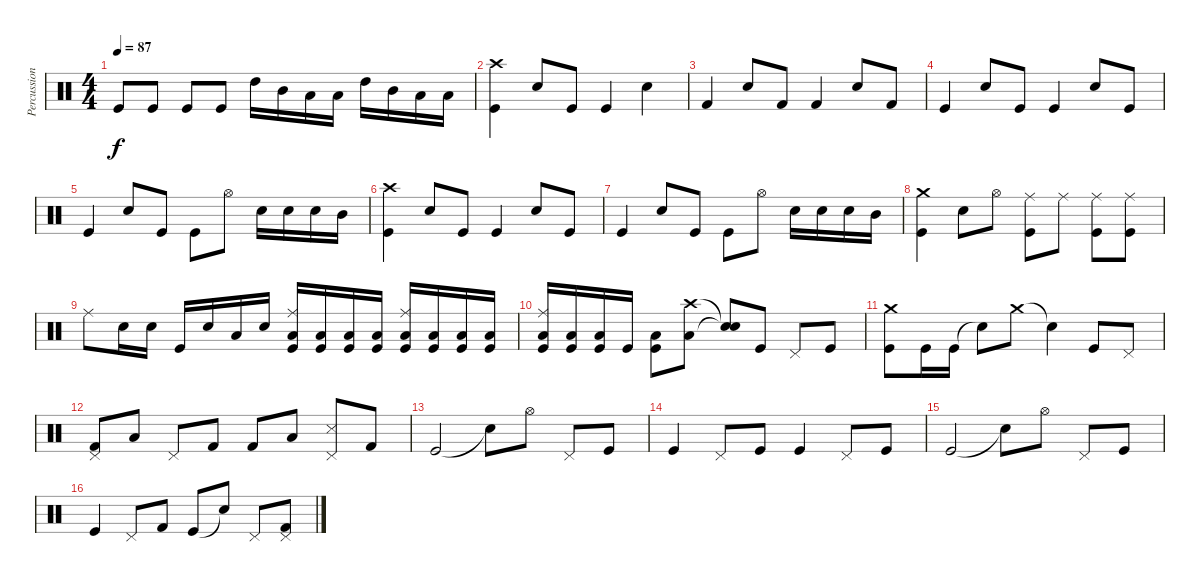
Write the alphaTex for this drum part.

\track ("Percussion" "Percussion") {instrument percussion}
\staff {score}
\articulation defaults
\ts (4 4)
\tempo 87
\clef neutral
\ks c "Kick (hit)".8{dy f} "Kick (hit)".8 "Kick (hit)".8 "Kick (hit)".8 "High Tom (hit)".16 "Mid Tom (hit)".16 "Low Tom (hit)".16 "Low Tom (hit)".16 "High Tom (hit)".16 "Mid Tom (hit)".16 "Low Tom (hit)".16 "Low Tom (hit)".16
|
("Crash high (hit)" "Kick (hit)").4 "Snare (hit) 2".8 "Kick (hit)".8 "Kick (hit)".4 "Snare (hit) 2".4 |
"Kick (hit) 2".4 "Snare (hit) 2".8 "Kick (hit) 2".8 "Kick (hit) 2".4 "Snare (hit) 2".8 "Kick (hit) 2".8 |
"Kick (hit)".4 "Snare (hit) 2".8 "Kick (hit)".8 "Kick (hit)".4 "Snare (hit) 2".8 "Kick (hit)".8 |
"Kick (hit)".4 "Snare (hit) 2".8 "Kick (hit)".8 "Kick (hit)".8 "Hi-Hat (open)".8 "Snare (hit) 2".16 "Snare (hit) 2".16 "Snare (hit) 2".16 "Mid Tom (hit)".16 |
("Crash high (hit)" "Kick (hit)").4 "Snare (hit) 2".8 "Kick (hit)".8 "Kick (hit)".4 "Snare (hit) 2".8 "Kick (hit)".8 |
"Kick (hit)".4 "Snare (hit) 2".8 "Kick (hit)".8 "Kick (hit)".8 "Hi-Hat (open)".8 "Snare (hit) 2".16 "Snare (hit) 2".16 "Snare (hit) 2".16 "Mid Tom (hit)".16 |
("Crash medium (hit)" "Kick (hit)").4 "Snare (hit) 2".8 "Hi-Hat (open)".8 ("Ride (middle)" "Kick (hit)").8 "Ride (middle)".8 ("Ride (middle)" "Kick (hit)").8 ("Ride (middle)" "Kick (hit)").8 |
"Ride (middle)".8 "Snare (hit) 2".16 "Snare (hit) 2".16 "Kick (hit)".16 "Snare (hit) 2".16 "Low Floor Tom (hit)".16 "Snare (hit) 2".16 ("Ride (middle)" "Kick (hit)" "Low Floor Tom (hit)").16 ("Kick (hit)" "Low Floor Tom (hit)").16 ("Kick (hit)" "Low Floor Tom (hit)").16 ("Kick (hit)" "Low Floor Tom (hit)").16 ("Ride (middle)" "Kick (hit)" "Low Floor Tom (hit)").16 ("Kick (hit)" "Low Floor Tom (hit)").16 ("Kick (hit)" "Low Floor Tom (hit)").16 ("Kick (hit)" "Low Floor Tom (hit)").16 |
("Ride (middle)" "Kick (hit)" "Low Floor Tom (hit)").16 ("Kick (hit)" "Low Floor Tom (hit)").16 ("Kick (hit)" "Low Floor Tom (hit)").16 "Kick (hit)".16 ("Kick (hit)" "Low Floor Tom (hit)").8 ("Crash high (hit)" "Low Floor Tom (hit)").8 ("Snare (hit)"{t} "Snare (hit)"{t}).8 "Kick (hit)".8 "Pedal Hi-Hat (hit)".8 "Kick (hit)".8 |
("Crash medium (hit)" "Kick (hit)").8 "Kick (hit)".16 "Kick (hit)".16 "Snare (hit)"{t}.8 "Crash medium (hit)".8 "Snare (hit)"{t}.4 "Kick (hit)".8 "Pedal Hi-Hat (hit)".8 |
("Pedal Hi-Hat (hit)" "Kick (hit) 2").8 "Low Floor Tom (hit)".8 "Pedal Hi-Hat (hit)".8 "Kick (hit) 2".8 "Kick (hit) 2".8 "Low Floor Tom (hit)".8 ("Pedal Hi-Hat (hit)" "Snare (side stick) 3").8 "Kick (hit) 2".8 |
"Kick (hit)".2 "Snare (hit)"{t}.8 "Hi-Hat (open)".8 "Pedal Hi-Hat (hit)".8 "Kick (hit)".8 |
"Kick (hit)".4 "Pedal Hi-Hat (hit)".8 "Kick (hit)".8 "Kick (hit)".4 "Pedal Hi-Hat (hit)".8 "Kick (hit)".8 |
"Kick (hit)".2 "Snare (hit)"{t}.8 "Hi-Hat (open)".8 "Pedal Hi-Hat (hit)".8 "Kick (hit)".8 |
"Kick (hit)".4 "Pedal Hi-Hat (hit)".8 "Kick (hit) 2".8 "Kick (hit)".8 "Snare (hit)"{t}.8 "Pedal Hi-Hat (hit)".8 ("Pedal Hi-Hat (hit)" "Kick (hit) 2").8
